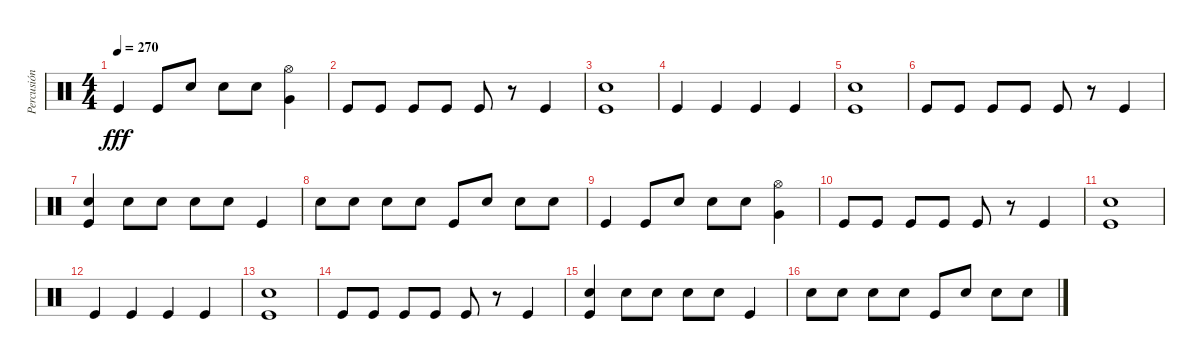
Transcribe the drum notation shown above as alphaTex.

\track ("Percusión" "Percusión") {instrument percussion}
\staff {score}
\articulation defaults
\ts (4 4)
\tempo 270
\clef neutral
\ks c "Kick (hit)".4{dy fff} "Kick (hit)".8 "Snare (hit) 2".8 "Snare (hit) 2".8 "Snare (hit) 2".8
("Hi-Hat (open)" "Very Low Tom (hit)").4 |
"Kick (hit)".8 "Kick (hit)".8 "Kick (hit)".8 "Kick (hit)".8 "Kick (hit)".8 r.8 "Kick (hit)".4 |
("Snare (hit) 2" "Kick (hit)").1 |
"Kick (hit)".4 "Kick (hit)".4 "Kick (hit)".4 "Kick (hit)".4 |
("Snare (hit) 2" "Kick (hit)").1 |
"Kick (hit)".8 "Kick (hit)".8 "Kick (hit)".8 "Kick (hit)".8 "Kick (hit)".8 r.8 "Kick (hit)".4 |
("Snare (hit) 2" "Kick (hit)").4 "Snare (hit) 2".8 "Snare (hit) 2".8 "Snare (hit) 2".8 "Snare (hit) 2".8 "Kick (hit)".4 |
"Snare (hit) 2".8 "Snare (hit) 2".8 "Snare (hit) 2".8 "Snare (hit) 2".8 "Kick (hit)".8 "Snare (hit) 2".8 "Snare (hit) 2".8 "Snare (hit) 2".8 |
"Kick (hit)".4 "Kick (hit)".8 "Snare (hit) 2".8 "Snare (hit) 2".8 "Snare (hit) 2".8 ("Hi-Hat (open)" "Very Low Tom (hit)").4 |
"Kick (hit)".8 "Kick (hit)".8 "Kick (hit)".8 "Kick (hit)".8 "Kick (hit)".8 r.8 "Kick (hit)".4 |
("Snare (hit) 2" "Kick (hit)").1 |
"Kick (hit)".4 "Kick (hit)".4 "Kick (hit)".4 "Kick (hit)".4 |
("Snare (hit) 2" "Kick (hit)").1 |
"Kick (hit)".8 "Kick (hit)".8 "Kick (hit)".8 "Kick (hit)".8 "Kick (hit)".8 r.8 "Kick (hit)".4 |
("Snare (hit) 2" "Kick (hit)").4 "Snare (hit) 2".8 "Snare (hit) 2".8 "Snare (hit) 2".8 "Snare (hit) 2".8 "Kick (hit)".4 |
"Snare (hit) 2".8 "Snare (hit) 2".8 "Snare (hit) 2".8 "Snare (hit) 2".8 "Kick (hit)".8 "Snare (hit) 2".8 "Snare (hit) 2".8 "Snare (hit) 2".8
